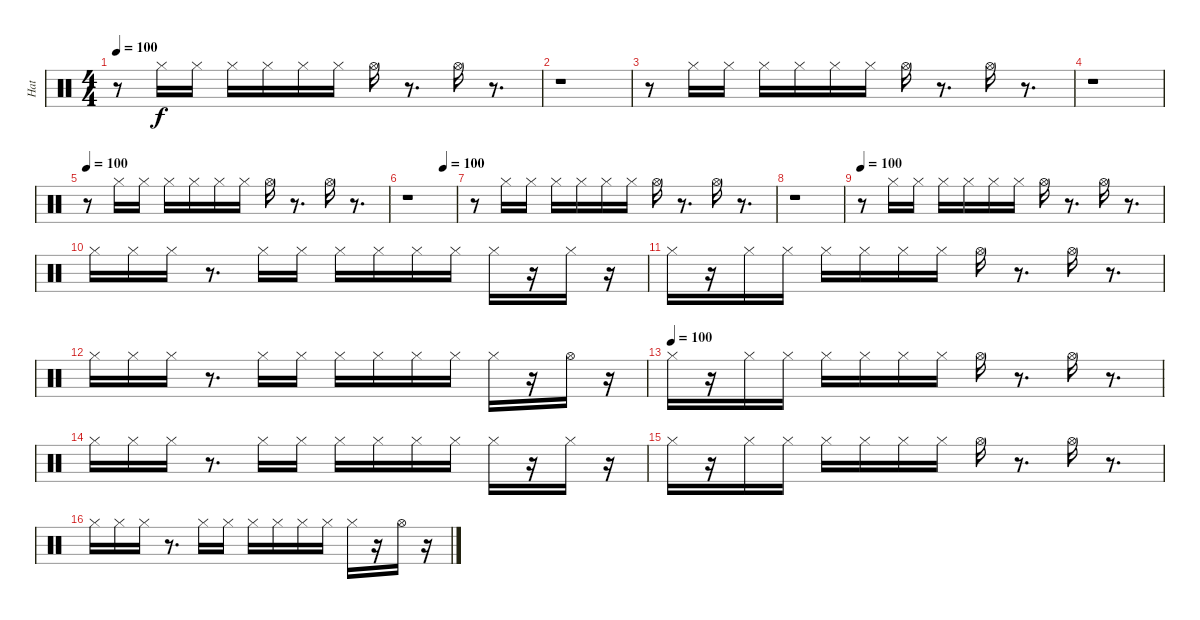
\track ("Hat" "Hat") {instrument percussion}
\staff {score}
\articulation defaults
\ts (4 4)
\tempo 100
\clef neutral
\ks c
r.8{dy f} "Hi-Hat (closed)".16 "Hi-Hat (closed)".16 "Hi-Hat (closed)".16 "Hi-Hat (closed)".16 "Hi-Hat (closed)".16 "Hi-Hat (closed)".16 "Hi-Hat (open)".16 r.8{d} "Hi-Hat (open)".16 r.8{d} |
r.1 |
r.8 "Hi-Hat (closed)".16 "Hi-Hat (closed)".16 "Hi-Hat (closed)".16 "Hi-Hat (closed)".16 "Hi-Hat (closed)".16 "Hi-Hat (closed)".16 "Hi-Hat (open)".16 r.8{d} "Hi-Hat (open)".16 r.8{d} |
r.1 |
\tempo 100
r.8 "Hi-Hat (closed)".16 "Hi-Hat (closed)".16 "Hi-Hat (closed)".16 "Hi-Hat (closed)".16 "Hi-Hat (closed)".16 "Hi-Hat (closed)".16 "Hi-Hat (open)".16 r.8{d} "Hi-Hat (open)".16 r.8{d} |
\tempo (100 0.75)
r.1 |
r.8 "Hi-Hat (closed)".16 "Hi-Hat (closed)".16 "Hi-Hat (closed)".16 "Hi-Hat (closed)".16 "Hi-Hat (closed)".16 "Hi-Hat (closed)".16 "Hi-Hat (open)".16 r.8{d} "Hi-Hat (open)".16 r.8{d} |
r.1 |
\tempo 100
r.8 "Hi-Hat (closed)".16 "Hi-Hat (closed)".16 "Hi-Hat (closed)".16 "Hi-Hat (closed)".16 "Hi-Hat (closed)".16 "Hi-Hat (closed)".16 "Hi-Hat (open)".16 r.8{d} "Hi-Hat (open)".16 r.8{d} |
"Hi-Hat (closed)".16 "Hi-Hat (closed)".16 "Hi-Hat (closed)".16 r.8{d} "Hi-Hat (closed)".16 "Hi-Hat (closed)".16 "Hi-Hat (closed)".16 "Hi-Hat (closed)".16 "Hi-Hat (closed)".16 "Hi-Hat (closed)".16 "Hi-Hat (closed)".16 r.16 "Hi-Hat (closed)".16 r.16 |
"Hi-Hat (closed)".16 r.16 "Hi-Hat (closed)".16 "Hi-Hat (closed)".16 "Hi-Hat (closed)".16 "Hi-Hat (closed)".16 "Hi-Hat (closed)".16 "Hi-Hat (closed)".16 "Hi-Hat (open)".16 r.8{d} "Hi-Hat (open)".16 r.8{d} |
"Hi-Hat (closed)".16 "Hi-Hat (closed)".16 "Hi-Hat (closed)".16 r.8{d} "Hi-Hat (closed)".16 "Hi-Hat (closed)".16 "Hi-Hat (closed)".16 "Hi-Hat (closed)".16 "Hi-Hat (closed)".16 "Hi-Hat (closed)".16 "Hi-Hat (closed)".16 r.16 "Hi-Hat (open)".16 r.16 |
\tempo (100)
"Hi-Hat (closed)".16 r.16 "Hi-Hat (closed)".16 "Hi-Hat (closed)".16 "Hi-Hat (closed)".16 "Hi-Hat (closed)".16 "Hi-Hat (closed)".16 "Hi-Hat (closed)".16 "Hi-Hat (open)".16 r.8{d} "Hi-Hat (open)".16 r.8{d} |
"Hi-Hat (closed)".16 "Hi-Hat (closed)".16 "Hi-Hat (closed)".16 r.8{d} "Hi-Hat (closed)".16 "Hi-Hat (closed)".16 "Hi-Hat (closed)".16 "Hi-Hat (closed)".16 "Hi-Hat (closed)".16 "Hi-Hat (closed)".16 "Hi-Hat (closed)".16 r.16 "Hi-Hat (closed)".16 r.16 |
"Hi-Hat (closed)".16 r.16 "Hi-Hat (closed)".16 "Hi-Hat (closed)".16 "Hi-Hat (closed)".16 "Hi-Hat (closed)".16 "Hi-Hat (closed)".16 "Hi-Hat (closed)".16 "Hi-Hat (open)".16 r.8{d} "Hi-Hat (open)".16 r.8{d} |
"Hi-Hat (closed)".16 "Hi-Hat (closed)".16 "Hi-Hat (closed)".16 r.8{d} "Hi-Hat (closed)".16 "Hi-Hat (closed)".16 "Hi-Hat (closed)".16 "Hi-Hat (closed)".16 "Hi-Hat (closed)".16 "Hi-Hat (closed)".16 "Hi-Hat (closed)".16 r.16 "Hi-Hat (open)".16 r.16
